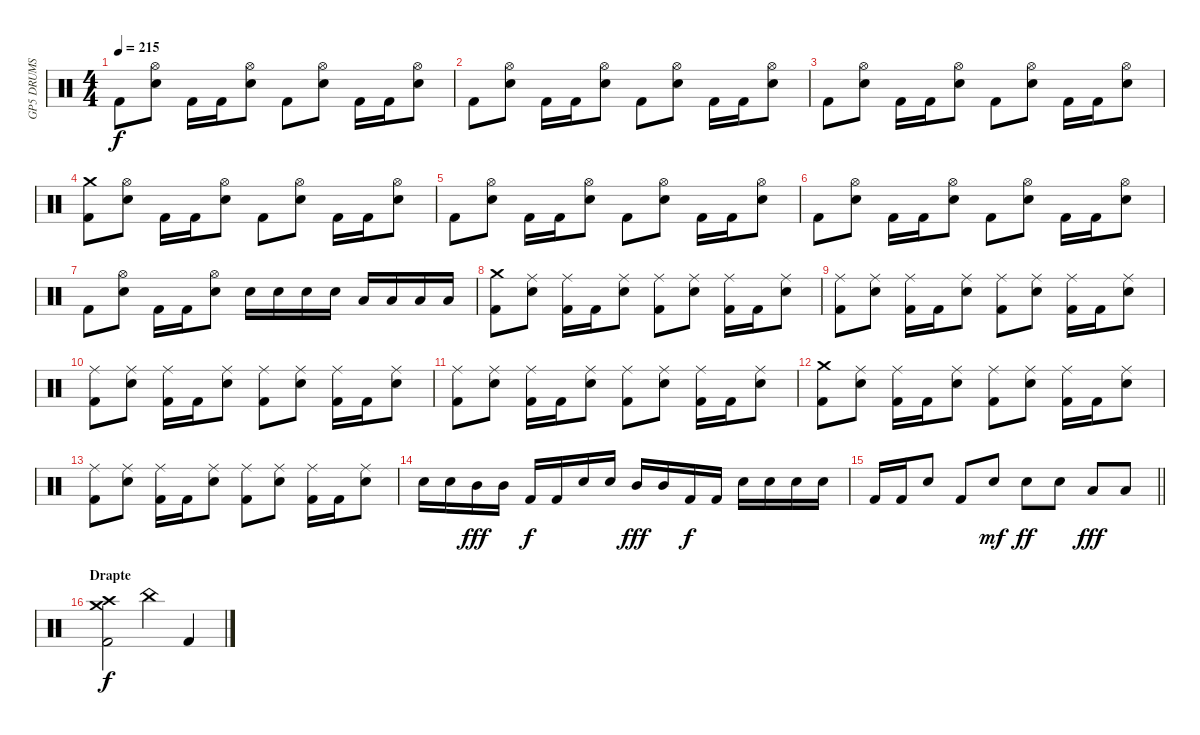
\track ("GP5 DRUMS" "GP5 DRUMS") {instrument percussion}
\staff {score}
\articulation defaults
\ts (4 4)
\tempo 215
\clef neutral
\ks c "Kick (hit) 2".8{dy f}
("Hi-Hat (open)" "Electric Snare (hit)").8 "Kick (hit) 2".16 "Kick (hit) 2".16 ("Hi-Hat (open)" "Electric Snare (hit)").8 "Kick (hit) 2".8 ("Hi-Hat (open)" "Electric Snare (hit)").8 "Kick (hit) 2".16 "Kick (hit) 2".16 ("Hi-Hat (open)" "Electric Snare (hit)").8 |
"Kick (hit) 2".8 ("Hi-Hat (open)" "Electric Snare (hit)").8 "Kick (hit) 2".16 "Kick (hit) 2".16 ("Hi-Hat (open)" "Electric Snare (hit)").8 "Kick (hit) 2".8 ("Hi-Hat (open)" "Electric Snare (hit)").8 "Kick (hit) 2".16 "Kick (hit) 2".16 ("Hi-Hat (open)" "Electric Snare (hit)").8 |
"Kick (hit) 2".8 ("Hi-Hat (open)" "Electric Snare (hit)").8 "Kick (hit) 2".16 "Kick (hit) 2".16 ("Hi-Hat (open)" "Electric Snare (hit)").8 "Kick (hit) 2".8 ("Hi-Hat (open)" "Electric Snare (hit)").8 "Kick (hit) 2".16 "Kick (hit) 2".16 ("Hi-Hat (open)" "Electric Snare (hit)").8 |
("Crash medium (hit)" "Kick (hit) 2").8 ("Hi-Hat (open)" "Electric Snare (hit)").8 "Kick (hit) 2".16 "Kick (hit) 2".16 ("Hi-Hat (open)" "Electric Snare (hit)").8 "Kick (hit) 2".8 ("Hi-Hat (open)" "Electric Snare (hit)").8 "Kick (hit) 2".16 "Kick (hit) 2".16 ("Hi-Hat (open)" "Electric Snare (hit)").8 |
"Kick (hit) 2".8 ("Hi-Hat (open)" "Electric Snare (hit)").8 "Kick (hit) 2".16 "Kick (hit) 2".16 ("Hi-Hat (open)" "Electric Snare (hit)").8 "Kick (hit) 2".8 ("Hi-Hat (open)" "Electric Snare (hit)").8 "Kick (hit) 2".16 "Kick (hit) 2".16 ("Hi-Hat (open)" "Electric Snare (hit)").8 |
"Kick (hit) 2".8 ("Hi-Hat (open)" "Electric Snare (hit)").8 "Kick (hit) 2".16 "Kick (hit) 2".16 ("Hi-Hat (open)" "Electric Snare (hit)").8 "Kick (hit) 2".8 ("Hi-Hat (open)" "Electric Snare (hit)").8 "Kick (hit) 2".16 "Kick (hit) 2".16 ("Hi-Hat (open)" "Electric Snare (hit)").8 |
"Kick (hit) 2".8 ("Hi-Hat (open)" "Electric Snare (hit)").8 "Kick (hit) 2".16 "Kick (hit) 2".16 ("Hi-Hat (open)" "Electric Snare (hit)").8 "Electric Snare (hit)".16 "Electric Snare (hit)".16 "Electric Snare (hit)".16 "Electric Snare (hit)".16 "Low Tom (hit)".16 "Low Tom (hit)".16 "Low Tom (hit)".16 "Low Tom (hit)".16 |
("Crash medium (hit)" "Kick (hit) 2").8 ("Ride (middle)" "Electric Snare (hit)").8 ("Ride (middle)" "Kick (hit) 2").16 "Kick (hit) 2".16 ("Ride (middle)" "Electric Snare (hit)").8 ("Ride (middle)" "Kick (hit) 2").8 ("Ride (middle)" "Electric Snare (hit)").8 ("Ride (middle)" "Kick (hit) 2").16 "Kick (hit) 2".16 ("Ride (middle)" "Electric Snare (hit)").8 |
("Ride (middle)" "Kick (hit) 2").8 ("Ride (middle)" "Electric Snare (hit)").8 ("Ride (middle)" "Kick (hit) 2").16 "Kick (hit) 2".16 ("Ride (middle)" "Electric Snare (hit)").8 ("Ride (middle)" "Kick (hit) 2").8 ("Ride (middle)" "Electric Snare (hit)").8 ("Ride (middle)" "Kick (hit) 2").16 "Kick (hit) 2".16 ("Ride (middle)" "Electric Snare (hit)").8 |
("Ride (middle)" "Kick (hit) 2").8 ("Ride (middle)" "Electric Snare (hit)").8 ("Ride (middle)" "Kick (hit) 2").16 "Kick (hit) 2".16 ("Ride (middle)" "Electric Snare (hit)").8 ("Ride (middle)" "Kick (hit) 2").8 ("Ride (middle)" "Electric Snare (hit)").8 ("Ride (middle)" "Kick (hit) 2").16 "Kick (hit) 2".16 ("Ride (middle)" "Electric Snare (hit)").8 |
("Ride (middle)" "Kick (hit) 2").8 ("Ride (middle)" "Electric Snare (hit)").8 ("Ride (middle)" "Kick (hit) 2").16 "Kick (hit) 2".16 ("Ride (middle)" "Electric Snare (hit)").8 ("Ride (middle)" "Kick (hit) 2").8 ("Ride (middle)" "Electric Snare (hit)").8 ("Ride (middle)" "Kick (hit) 2").16 "Kick (hit) 2".16 ("Ride (middle)" "Electric Snare (hit)").8 |
("Crash medium (hit)" "Kick (hit) 2").8 ("Ride (middle)" "Electric Snare (hit)").8 ("Ride (middle)" "Kick (hit) 2").16 "Kick (hit) 2".16 ("Ride (middle)" "Electric Snare (hit)").8 ("Ride (middle)" "Kick (hit) 2").8 ("Ride (middle)" "Electric Snare (hit)").8 ("Ride (middle)" "Kick (hit) 2").16 "Kick (hit) 2".16 ("Ride (middle)" "Electric Snare (hit)").8 |
("Ride (middle)" "Kick (hit) 2").8 ("Ride (middle)" "Electric Snare (hit)").8 ("Ride (middle)" "Kick (hit) 2").16 "Kick (hit) 2".16 ("Ride (middle)" "Electric Snare (hit)").8 ("Ride (middle)" "Kick (hit) 2").8 ("Ride (middle)" "Electric Snare (hit)").8 ("Ride (middle)" "Kick (hit) 2").16 "Kick (hit) 2".16 ("Ride (middle)" "Electric Snare (hit)").8 |
"Electric Snare (hit)".16 "Electric Snare (hit)".16 "Mid Tom (hit)".16{dy fff} "Mid Tom (hit)".16 "Kick (hit) 2".16{dy f} "Kick (hit) 2".16 "Electric Snare (hit)".16 "Electric Snare (hit)".16 "Mid Tom (hit)".16{dy fff} "Mid Tom (hit)".16 "Kick (hit) 2".16{dy f} "Kick (hit) 2".16 "Electric Snare (hit)".16 "Electric Snare (hit)".16 "Electric Snare (hit)".16 "Electric Snare (hit)".16 |
\barLineRight lightlight "Kick (hit) 2".16 "Kick (hit) 2".16 "Electric Snare (hit)".8 "Kick (hit) 2".8 "Electric Snare (hit)".8{dy mf} "Electric Snare (hit)".8{dy ff} "Electric Snare (hit)".8 "Low Tom (hit)".8{dy fff} "Low Tom (hit)".8
|
\section ("" "Drapte")
("Crash medium (hit)" "Crash high (hit)" "Kick (hit) 2").2{dy f} "China (hit)".4 "Kick (hit) 2".4
